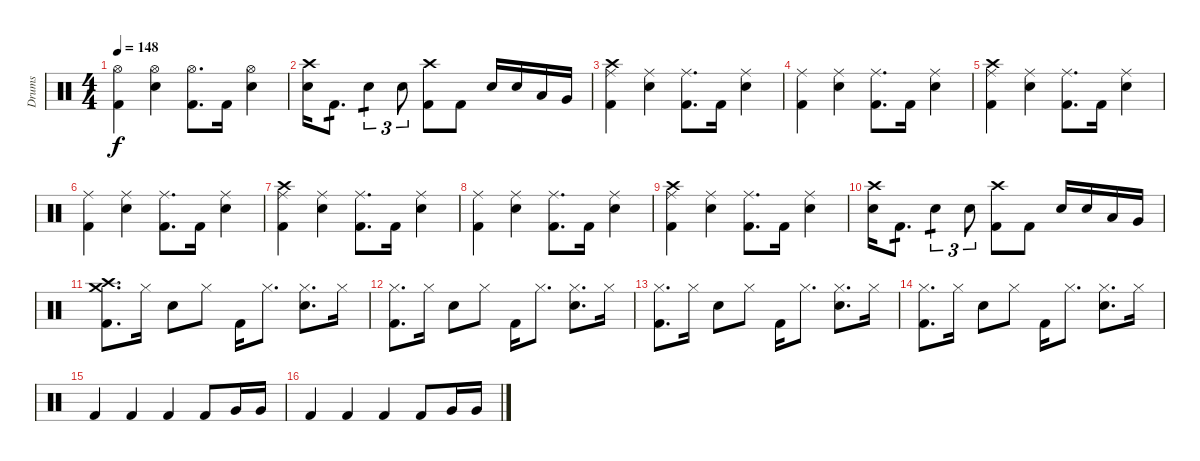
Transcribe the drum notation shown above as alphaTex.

\track ("Drums" "Drums") {instrument percussion}
\staff {score}
\articulation defaults
\ts (4 4)
\tempo 148
\clef neutral
\ks c
("Hi-Hat (open)" "Kick (hit) 2").4{dy f} ("Hi-Hat (open)" "Electric Snare (hit)").4 ("Hi-Hat (open)" "Kick (hit) 2").8{d} "Kick (hit) 2".16 ("Hi-Hat (open)" "Electric Snare (hit)").4 |
("Crash high (hit)" "Electric Snare (hit)").16 "Kick (hit) 2".8{d tp 1} "Electric Snare (hit)".4{tu (3 2) tp 1} "Electric Snare (hit)".8{tu (3 2)} ("Crash high (hit)" "Kick (hit) 2").8 "Kick (hit) 2".8 "Electric Snare (hit)".16 "Electric Snare (hit)".16 "Low Tom (hit)".16 "Very Low Tom (hit)".16 |
("Crash high (hit)" "Ride (middle)" "Kick (hit) 2").4 ("Ride (middle)" "Electric Snare (hit)").4 ("Ride (middle)" "Kick (hit) 2").8{d} "Kick (hit) 2".16 ("Ride (middle)" "Electric Snare (hit)").4 |
("Ride (middle)" "Kick (hit) 2").4 ("Ride (middle)" "Electric Snare (hit)").4 ("Ride (middle)" "Kick (hit) 2").8{d} "Kick (hit) 2".16 ("Ride (middle)" "Electric Snare (hit)").4 |
("Crash high (hit)" "Ride (middle)" "Kick (hit) 2").4 ("Ride (middle)" "Electric Snare (hit)").4 ("Ride (middle)" "Kick (hit) 2").8{d} "Kick (hit) 2".16 ("Ride (middle)" "Electric Snare (hit)").4 |
("Ride (middle)" "Kick (hit) 2").4 ("Ride (middle)" "Electric Snare (hit)").4 ("Ride (middle)" "Kick (hit) 2").8{d} "Kick (hit) 2".16 ("Ride (middle)" "Electric Snare (hit)").4 |
("Crash high (hit)" "Ride (middle)" "Kick (hit) 2").4 ("Ride (middle)" "Electric Snare (hit)").4 ("Ride (middle)" "Kick (hit) 2").8{d} "Kick (hit) 2".16 ("Ride (middle)" "Electric Snare (hit)").4 |
("Ride (middle)" "Kick (hit) 2").4 ("Ride (middle)" "Electric Snare (hit)").4 ("Ride (middle)" "Kick (hit) 2").8{d} "Kick (hit) 2".16 ("Ride (middle)" "Electric Snare (hit)").4 |
("Crash high (hit)" "Ride (middle)" "Kick (hit) 2").4 ("Ride (middle)" "Electric Snare (hit)").4 ("Ride (middle)" "Kick (hit) 2").8{d} "Kick (hit) 2".16 ("Ride (middle)" "Electric Snare (hit)").4 |
("Crash high (hit)" "Electric Snare (hit)").16 "Kick (hit) 2".8{d tp 1} "Electric Snare (hit)".4{tu (3 2) tp 1} "Electric Snare (hit)".8{tu (3 2)} ("Crash high (hit)" "Kick (hit) 2").8 "Kick (hit) 2".8 "Electric Snare (hit)".16 "Electric Snare (hit)".16 "Low Tom (hit)".16 "Very Low Tom (hit)".16 |
("Crash high (hit)" "Crash medium (hit)" "Kick (hit) 2").8{d} "Hi-Hat (closed)".16 "Electric Snare (hit)".8 "Hi-Hat (closed)".8 "Kick (hit) 2".16 "Hi-Hat (closed)".8{d} ("Hi-Hat (closed)" "Electric Snare (hit)").8{d} "Hi-Hat (closed)".16 |
("Hi-Hat (closed)" "Kick (hit) 2").8{d} "Hi-Hat (closed)".16 "Electric Snare (hit)".8 "Hi-Hat (closed)".8 "Kick (hit) 2".16 "Hi-Hat (closed)".8{d} ("Hi-Hat (closed)" "Electric Snare (hit)").8{d} "Hi-Hat (closed)".16 |
("Hi-Hat (closed)" "Kick (hit) 2").8{d} "Hi-Hat (closed)".16 "Electric Snare (hit)".8 "Hi-Hat (closed)".8 "Kick (hit) 2".16 "Hi-Hat (closed)".8{d} ("Hi-Hat (closed)" "Electric Snare (hit)").8{d} "Hi-Hat (closed)".16 |
("Hi-Hat (closed)" "Kick (hit) 2").8{d} "Hi-Hat (closed)".16 "Electric Snare (hit)".8 "Hi-Hat (closed)".8 "Kick (hit) 2".16 "Hi-Hat (closed)".8{d} ("Hi-Hat (closed)" "Electric Snare (hit)").8{d} "Hi-Hat (closed)".16 |
"Kick (hit) 2".4 "Kick (hit) 2".4 "Kick (hit) 2".4 "Kick (hit) 2".8 "Very Low Tom (hit)".16 "Very Low Tom (hit)".16 |
"Kick (hit) 2".4 "Kick (hit) 2".4 "Kick (hit) 2".4 "Kick (hit) 2".8 "Very Low Tom (hit)".16 "Very Low Tom (hit)".16
